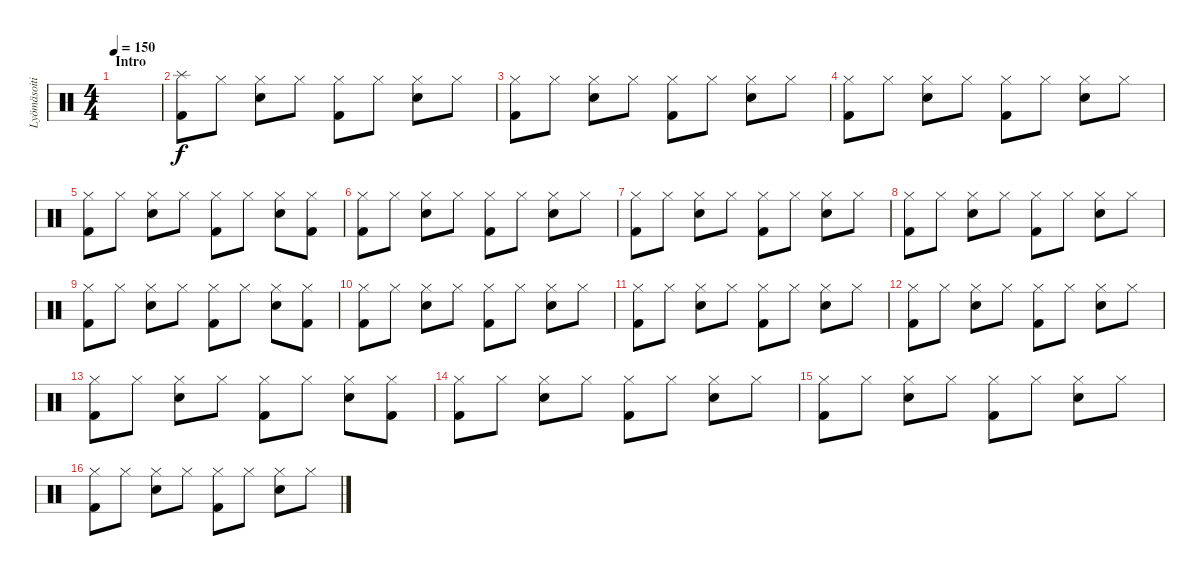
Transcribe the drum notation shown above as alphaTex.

\track ("Lyömäsoitin" "Lyömäsoiti") {instrument percussion}
\staff {score}
\articulation defaults
\ts (4 4)
\section ("" "Intro")
\tempo 150
\clef neutral
\ks c
|
("Splash (hit)" "Kick (hit) 2").8 "Hi-Hat (closed)".8 ("Hi-Hat (closed)" "Electric Snare (hit)").8 "Hi-Hat (closed)".8 ("Hi-Hat (closed)" "Kick (hit) 2").8 "Hi-Hat (closed)".8 ("Hi-Hat (closed)" "Electric Snare (hit)").8 "Hi-Hat (closed)".8 |
("Hi-Hat (closed)" "Kick (hit) 2").8 "Hi-Hat (closed)".8 ("Hi-Hat (closed)" "Electric Snare (hit)").8 "Hi-Hat (closed)".8 ("Hi-Hat (closed)" "Kick (hit) 2").8 "Hi-Hat (closed)".8 ("Hi-Hat (closed)" "Electric Snare (hit)").8 "Hi-Hat (closed)".8 |
("Hi-Hat (closed)" "Kick (hit) 2").8 "Hi-Hat (closed)".8 ("Hi-Hat (closed)" "Electric Snare (hit)").8 "Hi-Hat (closed)".8 ("Hi-Hat (closed)" "Kick (hit) 2").8 "Hi-Hat (closed)".8 ("Hi-Hat (closed)" "Electric Snare (hit)").8 "Hi-Hat (closed)".8 |
("Hi-Hat (closed)" "Kick (hit) 2").8 "Hi-Hat (closed)".8 ("Hi-Hat (closed)" "Electric Snare (hit)").8 "Hi-Hat (closed)".8 ("Hi-Hat (closed)" "Kick (hit) 2").8 "Hi-Hat (closed)".8 ("Hi-Hat (closed)" "Electric Snare (hit)").8 ("Hi-Hat (closed)" "Kick (hit) 2").8 |
("Hi-Hat (closed)" "Kick (hit) 2").8 "Hi-Hat (closed)".8 ("Hi-Hat (closed)" "Electric Snare (hit)").8 "Hi-Hat (closed)".8 ("Hi-Hat (closed)" "Kick (hit) 2").8 "Hi-Hat (closed)".8 ("Hi-Hat (closed)" "Electric Snare (hit)").8 "Hi-Hat (closed)".8 |
("Hi-Hat (closed)" "Kick (hit) 2").8 "Hi-Hat (closed)".8 ("Hi-Hat (closed)" "Electric Snare (hit)").8 "Hi-Hat (closed)".8 ("Hi-Hat (closed)" "Kick (hit) 2").8 "Hi-Hat (closed)".8 ("Hi-Hat (closed)" "Electric Snare (hit)").8 "Hi-Hat (closed)".8 |
("Hi-Hat (closed)" "Kick (hit) 2").8 "Hi-Hat (closed)".8 ("Hi-Hat (closed)" "Electric Snare (hit)").8 "Hi-Hat (closed)".8 ("Hi-Hat (closed)" "Kick (hit) 2").8 "Hi-Hat (closed)".8 ("Hi-Hat (closed)" "Electric Snare (hit)").8 "Hi-Hat (closed)".8 |
("Hi-Hat (closed)" "Kick (hit) 2").8 "Hi-Hat (closed)".8 ("Hi-Hat (closed)" "Electric Snare (hit)").8 "Hi-Hat (closed)".8 ("Hi-Hat (closed)" "Kick (hit) 2").8 "Hi-Hat (closed)".8 ("Hi-Hat (closed)" "Electric Snare (hit)").8 ("Hi-Hat (closed)" "Kick (hit) 2").8 |
("Hi-Hat (closed)" "Kick (hit) 2").8 "Hi-Hat (closed)".8 ("Hi-Hat (closed)" "Electric Snare (hit)").8 "Hi-Hat (closed)".8 ("Hi-Hat (closed)" "Kick (hit) 2").8 "Hi-Hat (closed)".8 ("Hi-Hat (closed)" "Electric Snare (hit)").8 "Hi-Hat (closed)".8 |
("Hi-Hat (closed)" "Kick (hit) 2").8 "Hi-Hat (closed)".8 ("Hi-Hat (closed)" "Electric Snare (hit)").8 "Hi-Hat (closed)".8 ("Hi-Hat (closed)" "Kick (hit) 2").8 "Hi-Hat (closed)".8 ("Hi-Hat (closed)" "Electric Snare (hit)").8 "Hi-Hat (closed)".8 |
("Hi-Hat (closed)" "Kick (hit) 2").8 "Hi-Hat (closed)".8 ("Hi-Hat (closed)" "Electric Snare (hit)").8 "Hi-Hat (closed)".8 ("Hi-Hat (closed)" "Kick (hit) 2").8 "Hi-Hat (closed)".8 ("Hi-Hat (closed)" "Electric Snare (hit)").8 "Hi-Hat (closed)".8 |
("Hi-Hat (closed)" "Kick (hit) 2").8 "Hi-Hat (closed)".8 ("Hi-Hat (closed)" "Electric Snare (hit)").8 "Hi-Hat (closed)".8 ("Hi-Hat (closed)" "Kick (hit) 2").8 "Hi-Hat (closed)".8 ("Hi-Hat (closed)" "Electric Snare (hit)").8 ("Hi-Hat (closed)" "Kick (hit) 2").8 |
("Hi-Hat (closed)" "Kick (hit) 2").8 "Hi-Hat (closed)".8 ("Hi-Hat (closed)" "Electric Snare (hit)").8 "Hi-Hat (closed)".8 ("Hi-Hat (closed)" "Kick (hit) 2").8 "Hi-Hat (closed)".8 ("Hi-Hat (closed)" "Electric Snare (hit)").8 "Hi-Hat (closed)".8 |
("Hi-Hat (closed)" "Kick (hit) 2").8 "Hi-Hat (closed)".8 ("Hi-Hat (closed)" "Electric Snare (hit)").8 "Hi-Hat (closed)".8 ("Hi-Hat (closed)" "Kick (hit) 2").8 "Hi-Hat (closed)".8 ("Hi-Hat (closed)" "Electric Snare (hit)").8 "Hi-Hat (closed)".8 |
("Hi-Hat (closed)" "Kick (hit) 2").8 "Hi-Hat (closed)".8 ("Hi-Hat (closed)" "Electric Snare (hit)").8 "Hi-Hat (closed)".8 ("Hi-Hat (closed)" "Kick (hit) 2").8 "Hi-Hat (closed)".8 ("Hi-Hat (closed)" "Electric Snare (hit)").8 "Hi-Hat (closed)".8
